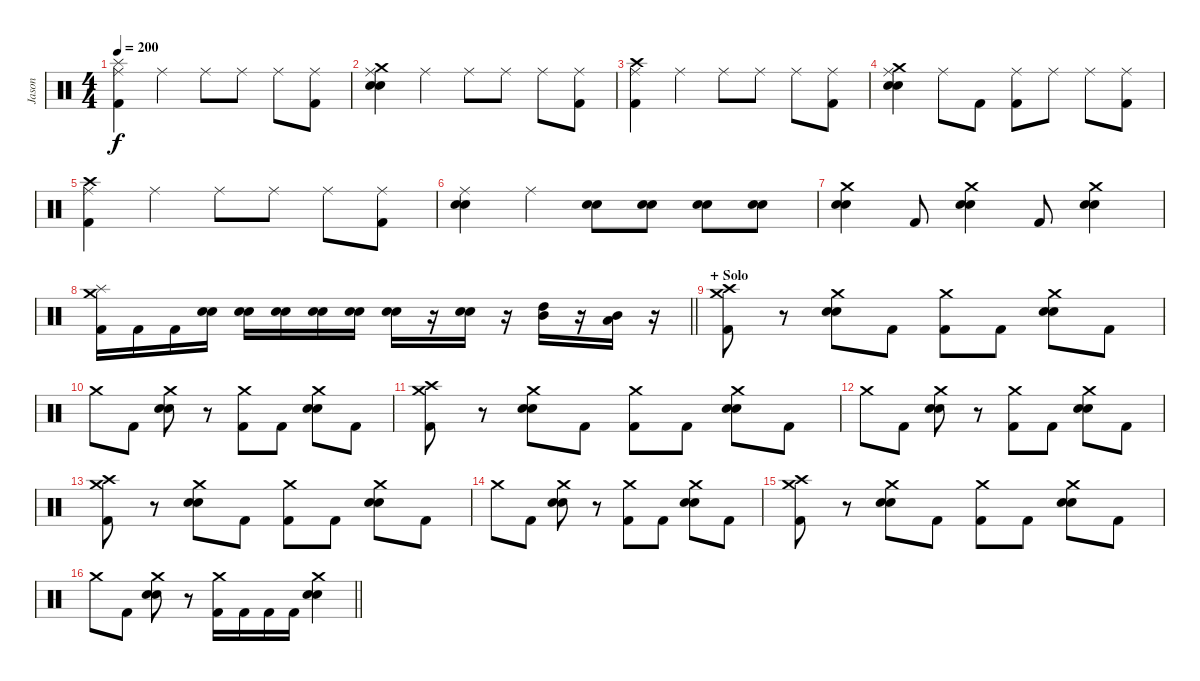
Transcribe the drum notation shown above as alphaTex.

\track ("Jason" "Jason") {instrument percussion}
\staff {score}
\articulation defaults
\ts (4 4)
\tempo 200
\clef neutral
\ks c
("Splash (hit)" "Ride (middle)" "Kick (hit) 2").4{dy f} "Ride (middle)".4 "Ride (middle)".8 "Ride (middle)".8 "Ride (middle)".8 ("Ride (middle)" "Kick (hit) 2").8 |
("Crash medium (hit)" "Ride (middle)" "Electric Snare (hit)" "Snare (hit) 2").4 "Ride (middle)".4 "Ride (middle)".8 "Ride (middle)".8 "Ride (middle)".8 ("Ride (middle)" "Kick (hit) 2").8 |
("Crash high (hit)" "Ride (middle)" "Kick (hit) 2").4 "Ride (middle)".4 "Ride (middle)".8 "Ride (middle)".8 "Ride (middle)".8 ("Ride (middle)" "Kick (hit) 2").8 |
("Crash medium (hit)" "Ride (middle)" "Electric Snare (hit)" "Snare (hit) 2").4 "Ride (middle)".8 "Kick (hit) 2".8 ("Ride (middle)" "Kick (hit) 2").8 "Ride (middle)".8 "Ride (middle)".8 ("Ride (middle)" "Kick (hit) 2").8 |
("Crash high (hit)" "Ride (middle)" "Kick (hit) 2").4 "Ride (middle)".4 "Ride (middle)".8 "Ride (middle)".8 "Ride (middle)".8 ("Ride (middle)" "Kick (hit) 2").8 |
("Ride (middle)" "Electric Snare (hit)" "Snare (hit) 2").4 "Ride (middle)".4 ("Electric Snare (hit)" "Snare (hit) 2").8 ("Electric Snare (hit)" "Snare (hit) 2").8 ("Electric Snare (hit)" "Snare (hit) 2").8 ("Electric Snare (hit)" "Snare (hit) 2").8 |
("Crash medium (hit)" "Electric Snare (hit)" "Snare (hit) 2").4 "Kick (hit) 2".8 ("Crash medium (hit)" "Electric Snare (hit)" "Snare (hit) 2").4 "Kick (hit) 2".8 ("Crash medium (hit)" "Electric Snare (hit)" "Snare (hit) 2").4 |
\barLineRight lightlight
("Crash medium (hit)" "Splash (hit)" "Kick (hit) 2").16 "Kick (hit) 2".16 "Kick (hit) 2".16 ("Electric Snare (hit)" "Snare (hit) 2").16 ("Electric Snare (hit)" "Snare (hit) 2").16 ("Electric Snare (hit)" "Snare (hit) 2").16 ("Electric Snare (hit)" "Snare (hit) 2").16 ("Electric Snare (hit)" "Snare (hit) 2").16 ("Electric Snare (hit)" "Snare (hit) 2").16 r.16 ("Electric Snare (hit)" "Snare (hit) 2").16 r.16 ("High Tom (hit)" "Mid Tom (hit)").16 r.16 ("Mid Tom (hit)" "Low Tom (hit)").16 r.16 |
\section ("" "+ Solo")
("Crash medium (hit)" "Crash high (hit)" "Kick (hit) 2").8 r.8 ("Crash medium (hit)" "Electric Snare (hit)" "Snare (hit) 2").8 "Kick (hit) 2".8 ("Crash medium (hit)" "Kick (hit) 2").8 "Kick (hit) 2".8 ("Crash medium (hit)" "Electric Snare (hit)" "Snare (hit) 2").8 "Kick (hit) 2".8 |
"Crash medium (hit)".8 "Kick (hit) 2".8 ("Crash medium (hit)" "Electric Snare (hit)" "Snare (hit) 2").8 r.8 ("Crash medium (hit)" "Kick (hit) 2").8 "Kick (hit) 2".8 ("Crash medium (hit)" "Electric Snare (hit)" "Snare (hit) 2").8 "Kick (hit) 2".8 |
("Crash medium (hit)" "Crash high (hit)" "Kick (hit) 2").8 r.8 ("Crash medium (hit)" "Electric Snare (hit)" "Snare (hit) 2").8 "Kick (hit) 2".8 ("Crash medium (hit)" "Kick (hit) 2").8 "Kick (hit) 2".8 ("Crash medium (hit)" "Electric Snare (hit)" "Snare (hit) 2").8 "Kick (hit) 2".8 |
"Crash medium (hit)".8 "Kick (hit) 2".8 ("Crash medium (hit)" "Electric Snare (hit)" "Snare (hit) 2").8 r.8 ("Crash medium (hit)" "Kick (hit) 2").8 "Kick (hit) 2".8 ("Crash medium (hit)" "Electric Snare (hit)" "Snare (hit) 2").8 "Kick (hit) 2".8 |
("Crash medium (hit)" "Crash high (hit)" "Kick (hit) 2").8 r.8 ("Crash medium (hit)" "Electric Snare (hit)" "Snare (hit) 2").8 "Kick (hit) 2".8 ("Crash medium (hit)" "Kick (hit) 2").8 "Kick (hit) 2".8 ("Crash medium (hit)" "Electric Snare (hit)" "Snare (hit) 2").8 "Kick (hit) 2".8 |
"Crash medium (hit)".8 "Kick (hit) 2".8 ("Crash medium (hit)" "Electric Snare (hit)" "Snare (hit) 2").8 r.8 ("Crash medium (hit)" "Kick (hit) 2").8 "Kick (hit) 2".8 ("Crash medium (hit)" "Electric Snare (hit)" "Snare (hit) 2").8 "Kick (hit) 2".8 |
("Crash medium (hit)" "Crash high (hit)" "Kick (hit) 2").8 r.8 ("Crash medium (hit)" "Electric Snare (hit)" "Snare (hit) 2").8 "Kick (hit) 2".8 ("Crash medium (hit)" "Kick (hit) 2").8 "Kick (hit) 2".8 ("Crash medium (hit)" "Electric Snare (hit)" "Snare (hit) 2").8 "Kick (hit) 2".8 |
\barLineRight lightlight "Crash medium (hit)".8 "Kick (hit) 2".8
("Crash medium (hit)" "Electric Snare (hit)" "Snare (hit) 2").8 r.8 ("Crash medium (hit)" "Kick (hit) 2").16 "Kick (hit) 2".16 "Kick (hit) 2".16 "Kick (hit) 2".16 ("Crash medium (hit)" "Electric Snare (hit)" "Snare (hit) 2").4
